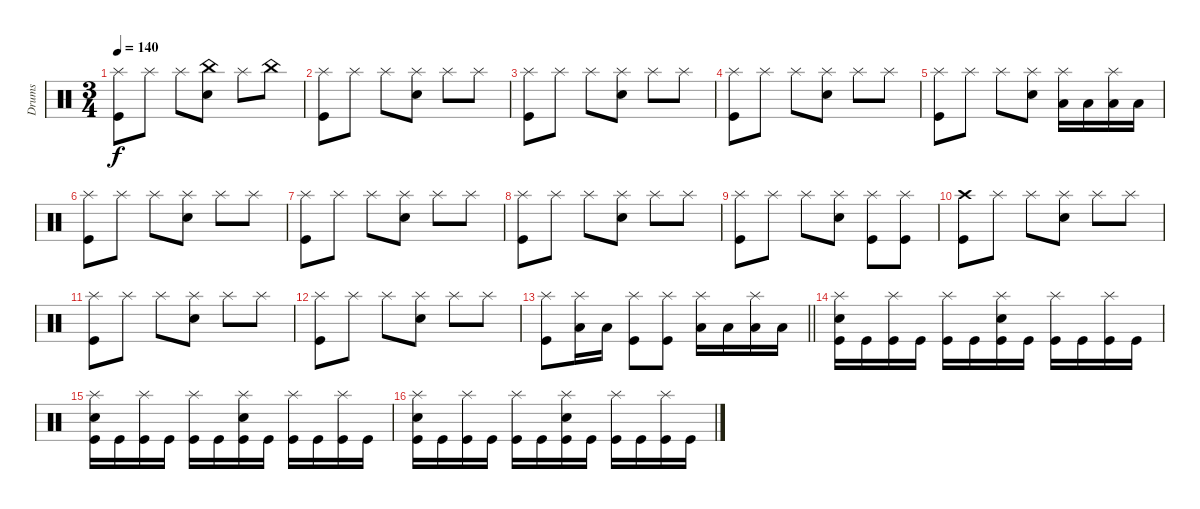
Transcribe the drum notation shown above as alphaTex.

\track ("Drums" "Drums") {instrument percussion}
\staff {score}
\articulation defaults
\ts (3 4)
\tempo 140
\clef neutral
\ks c
("Splash (hit)" "Kick (hit)").8{dy f} "Splash (hit)".8 "Splash (hit)".8 ("China (hit)" "Snare (hit) 2").8 "Splash (hit)".8 "China (hit)".8 |
("Splash (hit)" "Kick (hit)").8 "Splash (hit)".8 "Splash (hit)".8 ("Splash (hit)" "Snare (hit) 2").8 "Splash (hit)".8 "Splash (hit)".8 |
("Splash (hit)" "Kick (hit)").8 "Splash (hit)".8 "Splash (hit)".8 ("Splash (hit)" "Snare (hit) 2").8 "Splash (hit)".8 "Splash (hit)".8 |
("Splash (hit)" "Kick (hit)").8 "Splash (hit)".8 "Splash (hit)".8 ("Splash (hit)" "Snare (hit) 2").8 "Splash (hit)".8 "Splash (hit)".8 |
("Splash (hit)" "Kick (hit)").8 "Splash (hit)".8 "Splash (hit)".8 ("Splash (hit)" "Snare (hit) 2").8 ("Splash (hit)" "Low Tom (hit)").16 "Low Tom (hit)".16 ("Splash (hit)" "Low Tom (hit)").16 "Low Tom (hit)".16 |
("Splash (hit)" "Kick (hit)").8 "Splash (hit)".8 "Splash (hit)".8 ("Splash (hit)" "Snare (hit) 2").8 "Splash (hit)".8 "Splash (hit)".8 |
("Splash (hit)" "Kick (hit)").8 "Splash (hit)".8 "Splash (hit)".8 ("Splash (hit)" "Snare (hit) 2").8 "Splash (hit)".8 "Splash (hit)".8 |
("Splash (hit)" "Kick (hit)").8 "Splash (hit)".8 "Splash (hit)".8 ("Splash (hit)" "Snare (hit) 2").8 "Splash (hit)".8 "Splash (hit)".8 |
("Splash (hit)" "Kick (hit)").8 "Splash (hit)".8 "Splash (hit)".8 ("Splash (hit)" "Snare (hit) 2").8 ("Splash (hit)" "Kick (hit)").8 ("Splash (hit)" "Kick (hit)").8 |
("Crash high (hit)" "Kick (hit)").8 "Splash (hit)".8 "Splash (hit)".8 ("Splash (hit)" "Snare (hit) 2").8 "Splash (hit)".8 "Splash (hit)".8 |
("Splash (hit)" "Kick (hit)").8 "Splash (hit)".8 "Splash (hit)".8 ("Splash (hit)" "Snare (hit) 2").8 "Splash (hit)".8 "Splash (hit)".8 |
("Kick (hit)" "Splash (hit)").8 "Splash (hit)".8 "Splash (hit)".8 ("Snare (hit) 2" "Splash (hit)").8 "Splash (hit)".8 "Splash (hit)".8 |
\barLineRight lightlight
("Kick (hit)" "Splash (hit)").8 ("Low Tom (hit)" "Splash (hit)").16 "Low Tom (hit)".16 ("Kick (hit)" "Splash (hit)").8 ("Kick (hit)" "Splash (hit)").8 ("Low Tom (hit)" "Splash (hit)").16 "Low Tom (hit)".16 ("Low Tom (hit)" "Splash (hit)").16 "Low Tom (hit)".16 |
\section ("" "")
("Kick (hit)" "Snare (hit) 2" "Splash (hit)").16 "Kick (hit)".16 ("Kick (hit)" "Splash (hit)").16 "Kick (hit)".16 ("Kick (hit)" "Splash (hit)").16 "Kick (hit)".16 ("Kick (hit)" "Snare (hit) 2" "Splash (hit)").16 "Kick (hit)".16 ("Kick (hit)" "Splash (hit)").16 "Kick (hit)".16 ("Kick (hit)" "Splash (hit)").16 "Kick (hit)".16 |
("Kick (hit)" "Snare (hit) 2" "Splash (hit)").16 "Kick (hit)".16 ("Kick (hit)" "Splash (hit)").16 "Kick (hit)".16 ("Kick (hit)" "Splash (hit)").16 "Kick (hit)".16 ("Kick (hit)" "Snare (hit) 2" "Splash (hit)").16 "Kick (hit)".16 ("Kick (hit)" "Splash (hit)").16 "Kick (hit)".16 ("Kick (hit)" "Splash (hit)").16 "Kick (hit)".16 |
("Kick (hit)" "Snare (hit) 2" "Splash (hit)").16 "Kick (hit)".16 ("Kick (hit)" "Splash (hit)").16 "Kick (hit)".16 ("Kick (hit)" "Splash (hit)").16 "Kick (hit)".16 ("Kick (hit)" "Snare (hit) 2" "Splash (hit)").16 "Kick (hit)".16 ("Kick (hit)" "Splash (hit)").16 "Kick (hit)".16 ("Kick (hit)" "Splash (hit)").16 "Kick (hit)".16
